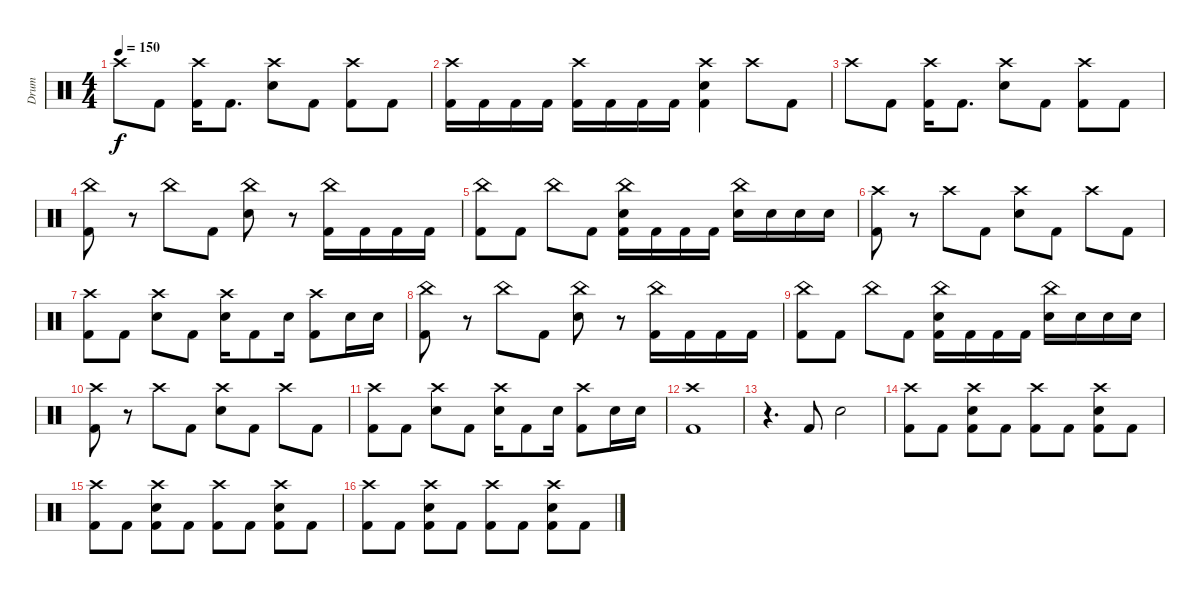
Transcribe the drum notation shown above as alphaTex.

\track ("Drum" "Drum") {instrument percussion}
\staff {score}
\articulation defaults
\ts (4 4)
\tempo 150
\clef neutral
\ks c "Crash high (hit)".8{dy f} "Kick (hit) 2".8
("Crash high (hit)" "Kick (hit) 2").16 "Kick (hit) 2".8{d} ("Crash high (hit)" "Electric Snare (hit)").8 "Kick (hit) 2".8 ("Crash high (hit)" "Kick (hit) 2").8 "Kick (hit) 2".8 |
("Crash high (hit)" "Kick (hit) 2").16 "Kick (hit) 2".16 "Kick (hit) 2".16 "Kick (hit) 2".16 ("Crash high (hit)" "Kick (hit) 2").16 "Kick (hit) 2".16 "Kick (hit) 2".16 "Kick (hit) 2".16 ("Crash high (hit)" "Electric Snare (hit)" "Kick (hit) 2").4 "Crash high (hit)".8 "Kick (hit) 2".8 |
"Crash high (hit)".8 "Kick (hit) 2".8 ("Crash high (hit)" "Kick (hit) 2").16 "Kick (hit) 2".8{d} ("Crash high (hit)" "Electric Snare (hit)").8 "Kick (hit) 2".8 ("Crash high (hit)" "Kick (hit) 2").8 "Kick (hit) 2".8 |
("China (hit)" "Kick (hit) 2").8 r.8 "China (hit)".8 "Kick (hit) 2".8 ("China (hit)" "Electric Snare (hit)").8 r.8 ("China (hit)" "Kick (hit) 2").16 "Kick (hit) 2".16 "Kick (hit) 2".16 "Kick (hit) 2".16 |
("China (hit)" "Kick (hit) 2").8 "Kick (hit) 2".8 "China (hit)".8 "Kick (hit) 2".8 ("China (hit)" "Electric Snare (hit)" "Kick (hit) 2").16 "Kick (hit) 2".16 "Kick (hit) 2".16 "Kick (hit) 2".16 ("China (hit)" "Electric Snare (hit)").16 "Electric Snare (hit)".16 "Electric Snare (hit)".16 "Electric Snare (hit)".16 |
("Crash high (hit)" "Kick (hit) 2").8 r.8 "Crash high (hit)".8 "Kick (hit) 2".8 ("Crash high (hit)" "Electric Snare (hit)").8 "Kick (hit) 2".8 "Crash high (hit)".8 "Kick (hit) 2".8 |
("Crash high (hit)" "Kick (hit) 2").8 "Kick (hit) 2".8 ("Crash high (hit)" "Electric Snare (hit)").8 "Kick (hit) 2".8 ("Crash high (hit)" "Electric Snare (hit)").16 "Kick (hit) 2".8 "Electric Snare (hit)".16 ("Crash high (hit)" "Kick (hit) 2").8 "Electric Snare (hit)".16 "Electric Snare (hit)".16 |
("China (hit)" "Kick (hit) 2").8 r.8 "China (hit)".8 "Kick (hit) 2".8 ("China (hit)" "Electric Snare (hit)").8 r.8 ("China (hit)" "Kick (hit) 2").16 "Kick (hit) 2".16 "Kick (hit) 2".16 "Kick (hit) 2".16 |
("China (hit)" "Kick (hit) 2").8 "Kick (hit) 2".8 "China (hit)".8 "Kick (hit) 2".8 ("China (hit)" "Electric Snare (hit)" "Kick (hit) 2").16 "Kick (hit) 2".16 "Kick (hit) 2".16 "Kick (hit) 2".16 ("China (hit)" "Electric Snare (hit)").16 "Electric Snare (hit)".16 "Electric Snare (hit)".16 "Electric Snare (hit)".16 |
("Crash high (hit)" "Kick (hit) 2").8 r.8 "Crash high (hit)".8 "Kick (hit) 2".8 ("Crash high (hit)" "Electric Snare (hit)").8 "Kick (hit) 2".8 "Crash high (hit)".8 "Kick (hit) 2".8 |
("Crash high (hit)" "Kick (hit) 2").8 "Kick (hit) 2".8 ("Crash high (hit)" "Electric Snare (hit)").8 "Kick (hit) 2".8 ("Crash high (hit)" "Electric Snare (hit)").16 "Kick (hit) 2".8 "Electric Snare (hit)".16 ("Crash high (hit)" "Kick (hit) 2").8 "Electric Snare (hit)".16 "Electric Snare (hit)".16 |
("Crash high (hit)" "Kick (hit) 2").1 |
r.4{d} "Kick (hit) 2".8 "Electric Snare (hit)".2 |
("Crash high (hit)" "Kick (hit) 2").8 "Kick (hit) 2".8 ("Crash high (hit)" "Electric Snare (hit)" "Kick (hit) 2").8 "Kick (hit) 2".8 ("Crash high (hit)" "Kick (hit) 2").8 "Kick (hit) 2".8 ("Crash high (hit)" "Electric Snare (hit)" "Kick (hit) 2").8 "Kick (hit) 2".8 |
("Crash high (hit)" "Kick (hit) 2").8 "Kick (hit) 2".8 ("Crash high (hit)" "Electric Snare (hit)" "Kick (hit) 2").8 "Kick (hit) 2".8 ("Crash high (hit)" "Kick (hit) 2").8 "Kick (hit) 2".8 ("Crash high (hit)" "Electric Snare (hit)" "Kick (hit) 2").8 "Kick (hit) 2".8 |
("Crash high (hit)" "Kick (hit) 2").8 "Kick (hit) 2".8 ("Crash high (hit)" "Electric Snare (hit)" "Kick (hit) 2").8 "Kick (hit) 2".8 ("Crash high (hit)" "Kick (hit) 2").8 "Kick (hit) 2".8 ("Crash high (hit)" "Electric Snare (hit)" "Kick (hit) 2").8 "Kick (hit) 2".8
